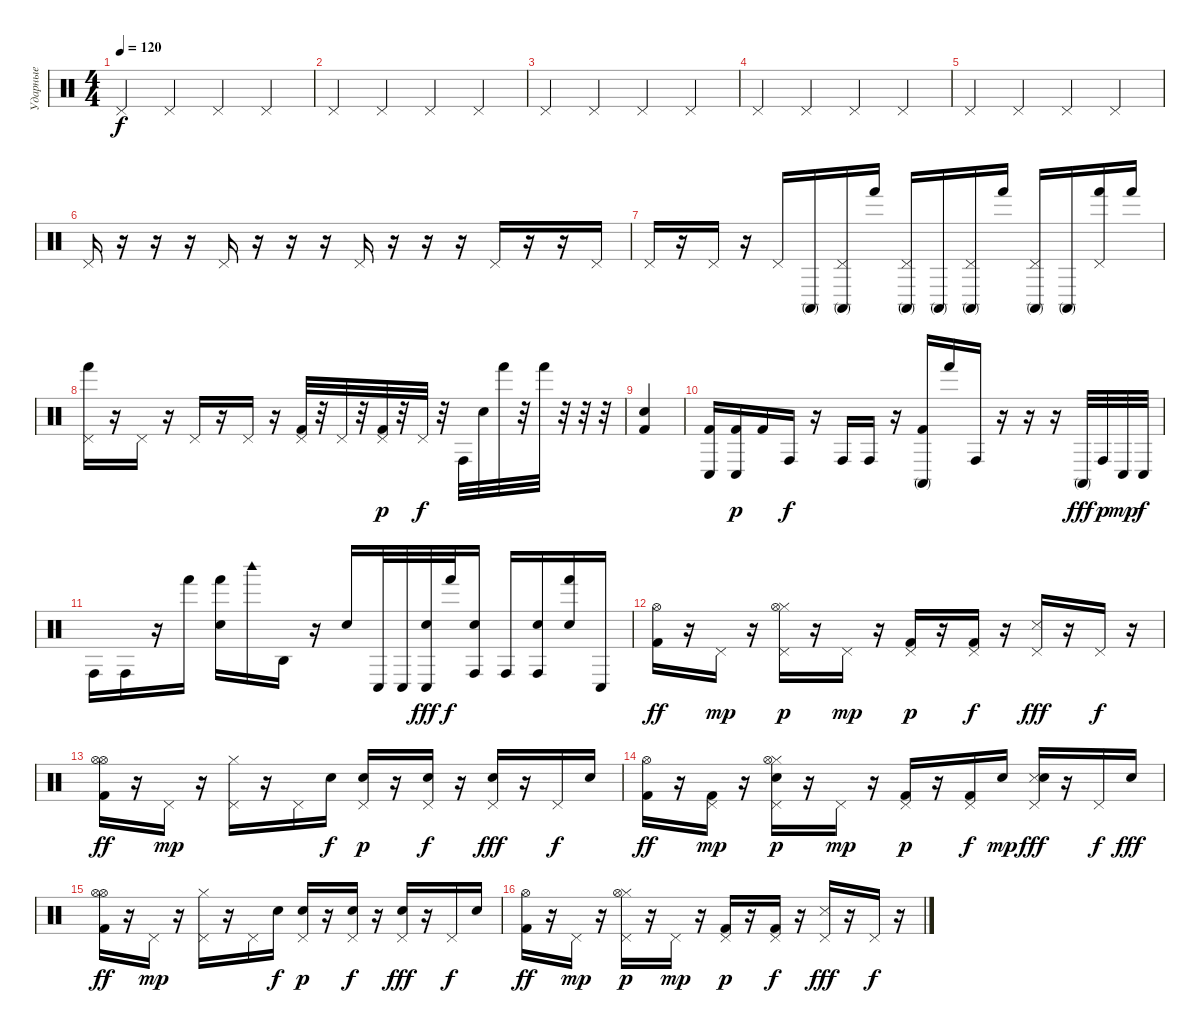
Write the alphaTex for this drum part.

\track ("Ударные" "Ударные") {instrument percussion}
\staff {score}
\articulation defaults
\ts (4 4)
\tempo 120
\tempo 105
\tempo 120
\clef neutral
\ks c "Pedal Hi-Hat (hit)".4{dy f} "Pedal Hi-Hat (hit)".4 "Pedal Hi-Hat (hit)".4 "Pedal Hi-Hat (hit)".4
|
"Pedal Hi-Hat (hit)".4 "Pedal Hi-Hat (hit)".4 "Pedal Hi-Hat (hit)".4 "Pedal Hi-Hat (hit)".4 |
"Pedal Hi-Hat (hit)".4 "Pedal Hi-Hat (hit)".4 "Pedal Hi-Hat (hit)".4 "Pedal Hi-Hat (hit)".4 |
"Pedal Hi-Hat (hit)".4 "Pedal Hi-Hat (hit)".4 "Pedal Hi-Hat (hit)".4 "Pedal Hi-Hat (hit)".4 |
"Pedal Hi-Hat (hit)".4 "Pedal Hi-Hat (hit)".4 "Pedal Hi-Hat (hit)".4 "Pedal Hi-Hat (hit)".4 |
"Pedal Hi-Hat (hit)".16 r.16 r.16 r.16 "Pedal Hi-Hat (hit)".16 r.16 r.16 r.16 "Pedal Hi-Hat (hit)".16 r.16 r.16 r.16 "Pedal Hi-Hat (hit)".16 r.16 r.16 "Pedal Hi-Hat (hit)".16 |
"Pedal Hi-Hat (hit)".16 r.16 "Pedal Hi-Hat (hit)".16 r.16 "Pedal Hi-Hat (hit)".16 "Conga high (mute)".16 ("Pedal Hi-Hat (hit)" "Conga high (mute)").16 "Hand (hit)".16 ("Pedal Hi-Hat (hit)" "Conga high (mute)").16 "Conga high (mute)".16 ("Pedal Hi-Hat (hit)" "Conga high (mute)").16 "Hand (hit)".16 ("Pedal Hi-Hat (hit)" "Conga high (mute)").16 "Conga high (mute)".16 ("Pedal Hi-Hat (hit)" "Hand (hit)").16 "Hand (hit)".16 |
("Pedal Hi-Hat (hit)" "Hand (hit)").16 r.16 "Pedal Hi-Hat (hit)".16 r.16 "Pedal Hi-Hat (hit)".16 r.16 "Pedal Hi-Hat (hit)".16 r.16 ("Pedal Hi-Hat (hit)" "Kick (hit) 2").32 r.32 "Pedal Hi-Hat (hit)".32 r.32 ("Pedal Hi-Hat (hit)" "Kick (hit) 2").32{dy p} r.32 "Pedal Hi-Hat (hit)".32{dy f} r.32 "Conga high (hit)".32 "Snare (hit)".32 "Hand (hit)".32 r.32 "Hand (hit)".32 r.32 r.32 r.32 |
("Metronome (bell)" "Kick (hit) 2").4 |
("Conga low (hit)" "Kick (hit) 2").16 ("Conga low (hit)" "Kick (hit) 2").16{dy p} "Kick (hit) 2".16 "Conga high (hit)".16{dy f} r.16 "Conga high (hit)".16 "Conga high (hit)".16 r.16 ("Conga high (mute)" "Kick (hit) 2").16 "Hand (hit)".16 "Conga high (hit)".16 r.16 r.16 r.16 "Conga high (mute)".32{dy fff} "Conga high (hit)".32{dy p} "Conga low (hit)".32{dy mp} "Conga low (hit)".32{dy f} |
"Conga high (hit)".16 "Conga high (hit)".16 r.16 "Hand (hit)".16 ("Snare (hit)" "Hand (hit)").16 "Woodblock high (hit)".16 "Agogo high (hit)".16 r.16 "Snare (hit) 2".16 "Conga low (hit)".32 "Conga low (hit)".32 ("Conga low (hit)" "Snare (hit) 2").32{dy fff} "Hand (hit)".32{dy f} ("Conga high (hit)" "Snare (hit) 2").16 "Conga high (hit)".16 ("Conga high (hit)" "Snare (hit) 2").16 ("Hand (hit)" "Snare (hit) 2").16 "Conga low (hit)".16 |
("Hi-Hat (open)" "Kick (hit) 2").16{dy ff} r.16 "Pedal Hi-Hat (hit)".16{dy mp} r.16 ("Pedal Hi-Hat (hit)" "Hi-Hat (closed)" "Hi-Hat (open)").16{dy p} r.16 "Pedal Hi-Hat (hit)".16{dy mp} r.16 ("Pedal Hi-Hat (hit)" "Kick (hit) 2").16{dy p} r.16 ("Pedal Hi-Hat (hit)" "Kick (hit) 2").16{dy f} r.16 ("Pedal Hi-Hat (hit)" "Snare (side stick) 3").16{dy fff} r.16 "Pedal Hi-Hat (hit)".16{dy f} r.16 |
("Hi-Hat (open)" "Kick (hit) 2" "Hi-Hat (open)").16{dy ff} r.16 "Pedal Hi-Hat (hit)".16{dy mp} r.16 ("Pedal Hi-Hat (hit)" "Hi-Hat (closed)").16 r.16 "Pedal Hi-Hat (hit)".16 "Snare (hit) 2".16{dy f} ("Pedal Hi-Hat (hit)" "Snare (hit) 2").16{dy p} r.16 ("Pedal Hi-Hat (hit)" "Snare (hit) 2").16{dy f} r.16 ("Pedal Hi-Hat (hit)" "Snare (hit) 2").16{dy fff} r.16 "Pedal Hi-Hat (hit)".16{dy f} "Snare (hit) 2".16 |
("Hi-Hat (open)" "Kick (hit) 2").16{dy ff} r.16 ("Pedal Hi-Hat (hit)" "Kick (hit) 2").16{dy mp} r.16 ("Pedal Hi-Hat (hit)" "Hi-Hat (closed)" "Snare (hit) 2" "Hi-Hat (open)").16{dy p} r.16 "Pedal Hi-Hat (hit)".16{dy mp} r.16 ("Pedal Hi-Hat (hit)" "Kick (hit) 2").16{dy p} r.16 ("Pedal Hi-Hat (hit)" "Kick (hit) 2").16{dy f} "Snare (hit) 2".16{dy mp} ("Pedal Hi-Hat (hit)" "Snare (side stick) 3" "Snare (hit) 2").16{dy fff} r.16 "Pedal Hi-Hat (hit)".16{dy f} "Snare (hit) 2".16{dy fff} |
("Hi-Hat (open)" "Kick (hit) 2" "Hi-Hat (open)").16{dy ff} r.16 "Pedal Hi-Hat (hit)".16{dy mp} r.16 ("Pedal Hi-Hat (hit)" "Hi-Hat (closed)").16 r.16 "Pedal Hi-Hat (hit)".16 "Snare (hit) 2".16{dy f} ("Pedal Hi-Hat (hit)" "Snare (hit) 2").16{dy p} r.16 ("Pedal Hi-Hat (hit)" "Snare (hit) 2").16{dy f} r.16 ("Pedal Hi-Hat (hit)" "Snare (hit) 2").16{dy fff} r.16 "Pedal Hi-Hat (hit)".16{dy f} "Snare (hit) 2".16 |
("Hi-Hat (open)" "Kick (hit) 2").16{dy ff} r.16 "Pedal Hi-Hat (hit)".16{dy mp} r.16 ("Pedal Hi-Hat (hit)" "Hi-Hat (closed)" "Hi-Hat (open)").16{dy p} r.16 "Pedal Hi-Hat (hit)".16{dy mp} r.16 ("Pedal Hi-Hat (hit)" "Kick (hit) 2").16{dy p} r.16 ("Pedal Hi-Hat (hit)" "Kick (hit) 2").16{dy f} r.16 ("Pedal Hi-Hat (hit)" "Snare (side stick) 3").16{dy fff} r.16 "Pedal Hi-Hat (hit)".16{dy f} r.16
